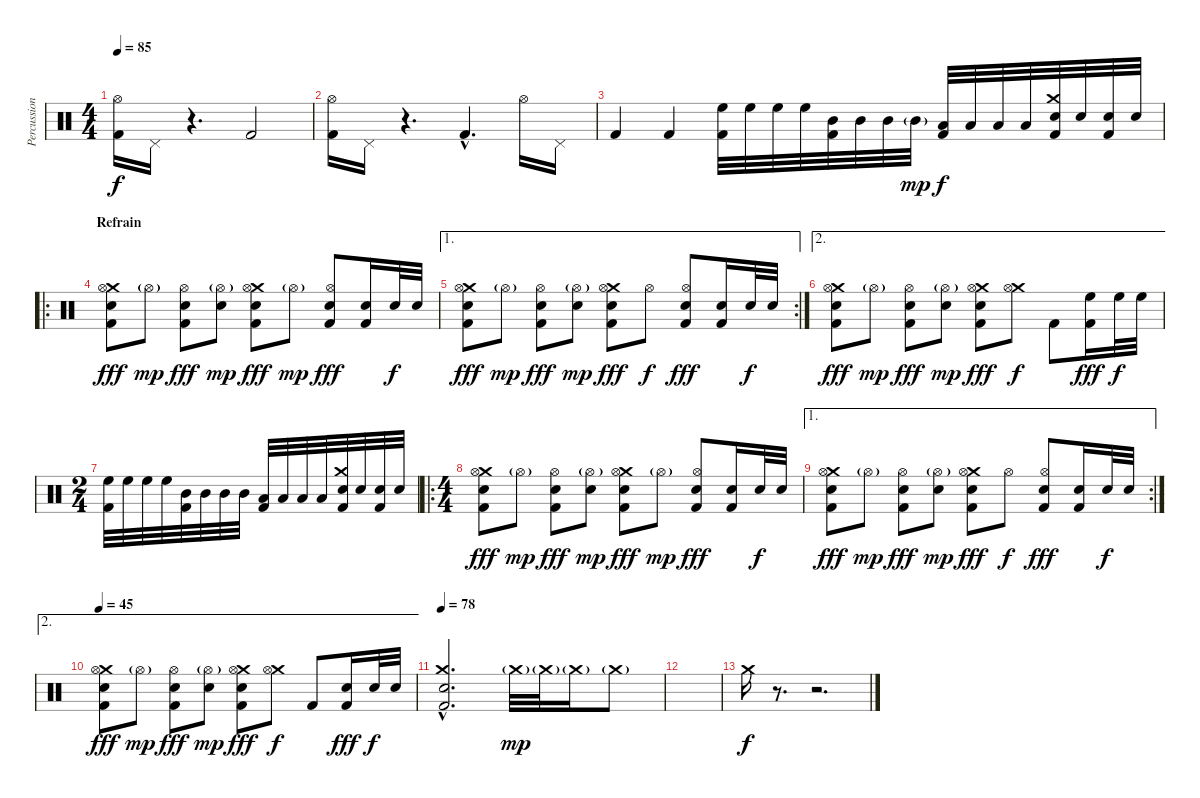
\track ("Percussions" "Percussion") {instrument percussion}
\staff {score}
\articulation defaults
\ts (4 4)
\tempo 85
\clef neutral
\ks c
("Kick (hit) 2" "Hi-Hat (open)").16{dy f} "Pedal Hi-Hat (hit)".16 r.4{d} "Kick (hit) 2".2 |
("Kick (hit) 2" "Hi-Hat (open)").16 "Pedal Hi-Hat (hit)".16 r.4{d} "Kick (hit) 2"{hac}.4{d} "Hi-Hat (open)".16 "Pedal Hi-Hat (hit)".16 |
"Kick (hit) 2".4 "Kick (hit) 2".4 ("High Floor Tom (hit)" "Kick (hit) 2").32 "High Floor Tom (hit)".32 "High Floor Tom (hit)".32 "High Floor Tom (hit)".32 ("Mid Tom (hit)" "Kick (hit) 2").32 "Mid Tom (hit)".32 "Mid Tom (hit)".32 "Mid Tom (hit)"{g}.32{dy mp} ("Low Tom (hit)" "Kick (hit) 2").32{dy f} "Low Tom (hit)".32 "Low Tom (hit)".32 "Low Tom (hit)".32 ("Crash medium (hit)" "Electric Snare (hit)" "Kick (hit) 2").32 "Electric Snare (hit)".32 ("Electric Snare (hit)" "Kick (hit) 2").32 "Electric Snare (hit)".32 |
\ro
\section ("" "Refrain")
("Crash medium (hit)" "Kick (hit) 2" "Electric Snare (hit)" "Hi-Hat (open)").8{dy fff} "Hi-Hat (open)"{g}.8{dy mp} ("Kick (hit) 2" "Electric Snare (hit)" "Hi-Hat (open)").8{dy fff} ("Electric Snare (hit)" "Hi-Hat (open)"{g}).8{dy mp} ("Crash medium (hit)" "Kick (hit) 2" "Electric Snare (hit)" "Hi-Hat (open)").8{dy fff} "Hi-Hat (open)"{g}.8{dy mp} ("Kick (hit) 2" "Electric Snare (hit)" "Hi-Hat (open)").8{dy fff} ("Kick (hit) 2" "Electric Snare (hit)").16 "Electric Snare (hit)".32{dy f} "Electric Snare (hit)".32 |
\ae 1
\rc 2
("Crash medium (hit)" "Kick (hit) 2" "Electric Snare (hit)" "Hi-Hat (open)").8{dy fff} "Hi-Hat (open)"{g}.8{dy mp} ("Kick (hit) 2" "Electric Snare (hit)" "Hi-Hat (open)").8{dy fff} ("Electric Snare (hit)" "Hi-Hat (open)"{g}).8{dy mp} ("Crash medium (hit)" "Kick (hit) 2" "Electric Snare (hit)" "Hi-Hat (open)").8{dy fff} "Hi-Hat (open)".8{dy f} ("Kick (hit) 2" "Electric Snare (hit)" "Hi-Hat (open)").8{dy fff} ("Kick (hit) 2" "Electric Snare (hit)").16 "Electric Snare (hit)".32{dy f} "Electric Snare (hit)".32 |
\ae 2
("Crash medium (hit)" "Kick (hit) 2" "Electric Snare (hit)" "Hi-Hat (open)").8{dy fff} "Hi-Hat (open)"{g}.8{dy mp} ("Kick (hit) 2" "Electric Snare (hit)" "Hi-Hat (open)").8{dy fff} ("Electric Snare (hit)" "Hi-Hat (open)"{g}).8{dy mp} ("Crash medium (hit)" "Kick (hit) 2" "Electric Snare (hit)" "Hi-Hat (open)").8{dy fff} ("Crash medium (hit)" "Hi-Hat (open)").8{dy f} "Kick (hit) 2".8 ("Kick (hit) 2" "High Floor Tom (hit)").16{dy fff} "High Floor Tom (hit)".32{dy f} "High Floor Tom (hit)".32 |
\ts (2 4)
("High Floor Tom (hit)" "Kick (hit) 2").32 "High Floor Tom (hit)".32 "High Floor Tom (hit)".32 "High Floor Tom (hit)".32 ("Mid Tom (hit)" "Kick (hit) 2").32 "Mid Tom (hit)".32 "Mid Tom (hit)".32 "Mid Tom (hit)".32 ("Low Tom (hit)" "Kick (hit) 2").32 "Low Tom (hit)".32 "Low Tom (hit)".32 "Low Tom (hit)".32 ("Crash medium (hit)" "Electric Snare (hit)" "Kick (hit) 2").32 "Electric Snare (hit)".32 ("Electric Snare (hit)" "Kick (hit) 2").32 "Electric Snare (hit)".32 |
\ro
\ts (4 4)
("Crash medium (hit)" "Kick (hit) 2" "Electric Snare (hit)" "Hi-Hat (open)").8{dy fff} "Hi-Hat (open)"{g}.8{dy mp} ("Kick (hit) 2" "Electric Snare (hit)" "Hi-Hat (open)").8{dy fff} ("Electric Snare (hit)" "Hi-Hat (open)"{g}).8{dy mp} ("Crash medium (hit)" "Kick (hit) 2" "Electric Snare (hit)" "Hi-Hat (open)").8{dy fff} "Hi-Hat (open)"{g}.8{dy mp} ("Kick (hit) 2" "Electric Snare (hit)" "Hi-Hat (open)").8{dy fff} ("Kick (hit) 2" "Electric Snare (hit)").16 "Electric Snare (hit)".32{dy f} "Electric Snare (hit)".32 |
\ae 1
\rc 2
("Crash medium (hit)" "Kick (hit) 2" "Electric Snare (hit)" "Hi-Hat (open)").8{dy fff} "Hi-Hat (open)"{g}.8{dy mp} ("Kick (hit) 2" "Electric Snare (hit)" "Hi-Hat (open)").8{dy fff} ("Electric Snare (hit)" "Hi-Hat (open)"{g}).8{dy mp} ("Crash medium (hit)" "Kick (hit) 2" "Electric Snare (hit)" "Hi-Hat (open)").8{dy fff} "Hi-Hat (open)".8{dy f} ("Kick (hit) 2" "Electric Snare (hit)" "Hi-Hat (open)").8{dy fff} ("Kick (hit) 2" "Electric Snare (hit)").16 "Electric Snare (hit)".32{dy f} "Electric Snare (hit)".32 |
\ae 2
\tempo 45
("Crash medium (hit)" "Kick (hit) 2" "Electric Snare (hit)" "Hi-Hat (open)").8{dy fff} "Hi-Hat (open)"{g}.8{dy mp} ("Kick (hit) 2" "Electric Snare (hit)" "Hi-Hat (open)").8{dy fff} ("Electric Snare (hit)" "Hi-Hat (open)"{g}).8{dy mp} ("Crash medium (hit)" "Kick (hit) 2" "Electric Snare (hit)" "Hi-Hat (open)").8{dy fff} ("Crash medium (hit)" "Hi-Hat (open)").8{dy f} "Kick (hit) 2".8 ("Kick (hit) 2" "Electric Snare (hit)").16{dy fff} "Electric Snare (hit)".32{dy f} "Electric Snare (hit)".32 |
\tempo 78
("Crash medium (hit)"{hac} "Electric Snare (hit)"{hac} "Kick (hit) 2"{hac}).2{d} "Crash medium (hit)"{g}.32{dy mp} "Crash medium (hit)"{g}.32 "Crash medium (hit)"{g}.16 "Crash medium (hit)"{g}.8 |
|
"Crash medium (hit)".16{dy f} r.8{d} r.2{d}
